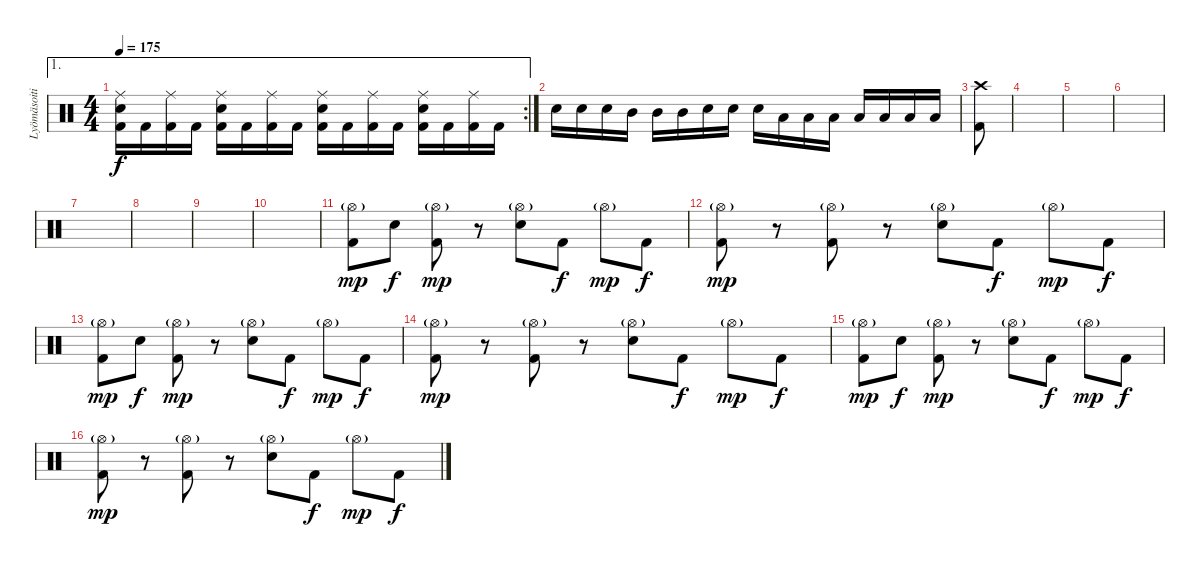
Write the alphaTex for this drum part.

\track ("Lyömäsoitin" "Lyömäsoiti") {instrument percussion}
\staff {score}
\articulation defaults
\ae 1
\rc 2
\ts (4 4)
\tempo 175
\clef neutral
\ks c
("Kick (hit) 2" "Electric Snare (hit)" "Ride (middle)").16{dy f} "Kick (hit) 2".16 ("Kick (hit) 2" "Ride (middle)").16 "Kick (hit) 2".16 ("Kick (hit) 2" "Electric Snare (hit)" "Ride (middle)").16 "Kick (hit) 2".16 ("Kick (hit) 2" "Ride (middle)").16 "Kick (hit) 2".16 ("Kick (hit) 2" "Electric Snare (hit)" "Ride (middle)").16 "Kick (hit) 2".16 ("Kick (hit) 2" "Ride (middle)").16 "Kick (hit) 2".16 ("Kick (hit) 2" "Electric Snare (hit)" "Ride (middle)").16 "Kick (hit) 2".16 ("Kick (hit) 2" "Ride (middle)").16 "Kick (hit) 2".16 |
"Electric Snare (hit)".16 "Electric Snare (hit)".16 "Electric Snare (hit)".16 "Mid Tom (hit)".16 "Mid Tom (hit)".16 "Mid Tom (hit)".16 "Electric Snare (hit)".16 "Electric Snare (hit)".16 "Electric Snare (hit)".16 "Low Tom (hit)".16 "Low Tom (hit)".16 "Low Tom (hit)".16 "Low Floor Tom (hit)".16 "Low Floor Tom (hit)".16 "Low Floor Tom (hit)".16 "Low Floor Tom (hit)".16 |
("Kick (hit) 2" "Crash high (hit)").8 |
|
|
|
|
|
|
|
("Kick (hit) 2" "Hi-Hat (open)"{g}).8{dy mp} "Snare (hit) 2".8{dy f} ("Kick (hit) 2" "Hi-Hat (open)"{g}).8{dy mp} r.8 ("Snare (hit) 2" "Hi-Hat (open)"{g}).8 "Kick (hit) 2".8{dy f} "Hi-Hat (open)"{g}.8{dy mp} "Kick (hit) 2".8{dy f} |
("Kick (hit) 2" "Hi-Hat (open)"{g}).8{dy mp} r.8 ("Kick (hit) 2" "Hi-Hat (open)"{g}).8 r.8 ("Snare (hit) 2" "Hi-Hat (open)"{g}).8 "Kick (hit) 2".8{dy f} "Hi-Hat (open)"{g}.8{dy mp} "Kick (hit) 2".8{dy f} |
("Kick (hit) 2" "Hi-Hat (open)"{g}).8{dy mp} "Snare (hit) 2".8{dy f} ("Kick (hit) 2" "Hi-Hat (open)"{g}).8{dy mp} r.8 ("Snare (hit) 2" "Hi-Hat (open)"{g}).8 "Kick (hit) 2".8{dy f} "Hi-Hat (open)"{g}.8{dy mp} "Kick (hit) 2".8{dy f} |
("Kick (hit) 2" "Hi-Hat (open)"{g}).8{dy mp} r.8 ("Kick (hit) 2" "Hi-Hat (open)"{g}).8 r.8 ("Snare (hit) 2" "Hi-Hat (open)"{g}).8 "Kick (hit) 2".8{dy f} "Hi-Hat (open)"{g}.8{dy mp} "Kick (hit) 2".8{dy f} |
("Kick (hit) 2" "Hi-Hat (open)"{g}).8{dy mp} "Snare (hit) 2".8{dy f} ("Kick (hit) 2" "Hi-Hat (open)"{g}).8{dy mp} r.8 ("Snare (hit) 2" "Hi-Hat (open)"{g}).8 "Kick (hit) 2".8{dy f} "Hi-Hat (open)"{g}.8{dy mp} "Kick (hit) 2".8{dy f} |
("Kick (hit) 2" "Hi-Hat (open)"{g}).8{dy mp} r.8 ("Kick (hit) 2" "Hi-Hat (open)"{g}).8 r.8 ("Snare (hit) 2" "Hi-Hat (open)"{g}).8 "Kick (hit) 2".8{dy f} "Hi-Hat (open)"{g}.8{dy mp} "Kick (hit) 2".8{dy f}
